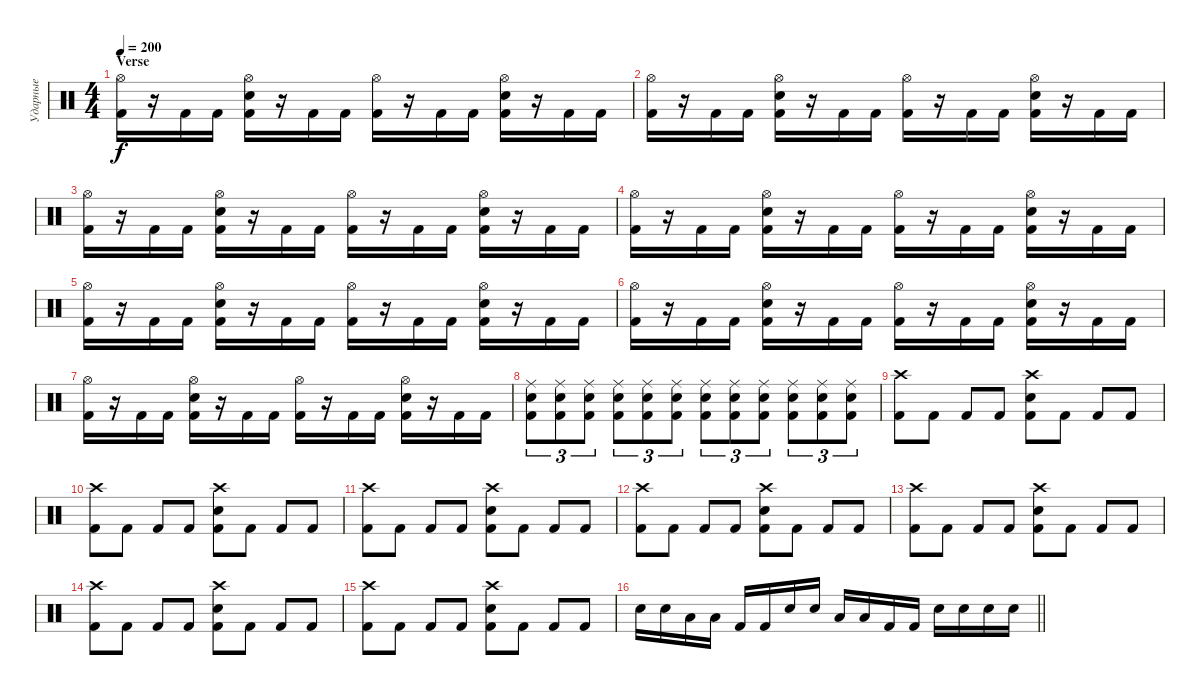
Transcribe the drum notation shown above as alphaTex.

\track ("Ударные" "Ударные") {instrument percussion}
\staff {score}
\articulation defaults
\ts (4 4)
\section ("" "Verse")
\tempo 200
\clef neutral
\ks c
("Hi-Hat (open)" "Kick (hit) 2").16{dy f} r.16 "Kick (hit) 2".16 "Kick (hit) 2".16 ("Hi-Hat (open)" "Electric Snare (hit)" "Kick (hit) 2").16 r.16 "Kick (hit) 2".16 "Kick (hit) 2".16 ("Hi-Hat (open)" "Kick (hit) 2").16 r.16 "Kick (hit) 2".16 "Kick (hit) 2".16 ("Hi-Hat (open)" "Electric Snare (hit)" "Kick (hit) 2").16 r.16 "Kick (hit) 2".16 "Kick (hit) 2".16 |
("Hi-Hat (open)" "Kick (hit) 2").16 r.16 "Kick (hit) 2".16 "Kick (hit) 2".16 ("Hi-Hat (open)" "Electric Snare (hit)" "Kick (hit) 2").16 r.16 "Kick (hit) 2".16 "Kick (hit) 2".16 ("Hi-Hat (open)" "Kick (hit) 2").16 r.16 "Kick (hit) 2".16 "Kick (hit) 2".16 ("Hi-Hat (open)" "Electric Snare (hit)" "Kick (hit) 2").16 r.16 "Kick (hit) 2".16 "Kick (hit) 2".16 |
("Hi-Hat (open)" "Kick (hit) 2").16 r.16 "Kick (hit) 2".16 "Kick (hit) 2".16 ("Hi-Hat (open)" "Electric Snare (hit)" "Kick (hit) 2").16 r.16 "Kick (hit) 2".16 "Kick (hit) 2".16 ("Hi-Hat (open)" "Kick (hit) 2").16 r.16 "Kick (hit) 2".16 "Kick (hit) 2".16 ("Hi-Hat (open)" "Electric Snare (hit)" "Kick (hit) 2").16 r.16 "Kick (hit) 2".16 "Kick (hit) 2".16 |
("Hi-Hat (open)" "Kick (hit) 2").16 r.16 "Kick (hit) 2".16 "Kick (hit) 2".16 ("Hi-Hat (open)" "Electric Snare (hit)" "Kick (hit) 2").16 r.16 "Kick (hit) 2".16 "Kick (hit) 2".16 ("Hi-Hat (open)" "Kick (hit) 2").16 r.16 "Kick (hit) 2".16 "Kick (hit) 2".16 ("Hi-Hat (open)" "Electric Snare (hit)" "Kick (hit) 2").16 r.16 "Kick (hit) 2".16 "Kick (hit) 2".16 |
("Hi-Hat (open)" "Kick (hit) 2").16 r.16 "Kick (hit) 2".16 "Kick (hit) 2".16 ("Hi-Hat (open)" "Electric Snare (hit)" "Kick (hit) 2").16 r.16 "Kick (hit) 2".16 "Kick (hit) 2".16 ("Hi-Hat (open)" "Kick (hit) 2").16 r.16 "Kick (hit) 2".16 "Kick (hit) 2".16 ("Hi-Hat (open)" "Electric Snare (hit)" "Kick (hit) 2").16 r.16 "Kick (hit) 2".16 "Kick (hit) 2".16 |
("Hi-Hat (open)" "Kick (hit) 2").16 r.16 "Kick (hit) 2".16 "Kick (hit) 2".16 ("Hi-Hat (open)" "Electric Snare (hit)" "Kick (hit) 2").16 r.16 "Kick (hit) 2".16 "Kick (hit) 2".16 ("Hi-Hat (open)" "Kick (hit) 2").16 r.16 "Kick (hit) 2".16 "Kick (hit) 2".16 ("Hi-Hat (open)" "Electric Snare (hit)" "Kick (hit) 2").16 r.16 "Kick (hit) 2".16 "Kick (hit) 2".16 |
("Hi-Hat (open)" "Kick (hit) 2").16 r.16 "Kick (hit) 2".16 "Kick (hit) 2".16 ("Hi-Hat (open)" "Electric Snare (hit)" "Kick (hit) 2").16 r.16 "Kick (hit) 2".16 "Kick (hit) 2".16 ("Hi-Hat (open)" "Kick (hit) 2").16 r.16 "Kick (hit) 2".16 "Kick (hit) 2".16 ("Hi-Hat (open)" "Electric Snare (hit)" "Kick (hit) 2").16 r.16 "Kick (hit) 2".16 "Kick (hit) 2".16 |
("Ride (middle)" "Electric Snare (hit)" "Kick (hit) 2").8{tu (3 2)} ("Ride (middle)" "Electric Snare (hit)" "Kick (hit) 2").8{tu (3 2)} ("Ride (middle)" "Electric Snare (hit)" "Kick (hit) 2").8{tu (3 2)} ("Ride (middle)" "Electric Snare (hit)" "Kick (hit) 2").8{tu (3 2)} ("Ride (middle)" "Electric Snare (hit)" "Kick (hit) 2").8{tu (3 2)} ("Ride (middle)" "Electric Snare (hit)" "Kick (hit) 2").8{tu (3 2)} ("Ride (middle)" "Electric Snare (hit)" "Kick (hit) 2").8{tu (3 2)} ("Ride (middle)" "Electric Snare (hit)" "Kick (hit) 2").8{tu (3 2)} ("Ride (middle)" "Electric Snare (hit)" "Kick (hit) 2").8{tu (3 2)} ("Ride (middle)" "Electric Snare (hit)" "Kick (hit) 2").8{tu (3 2)} ("Ride (middle)" "Electric Snare (hit)" "Kick (hit) 2").8{tu (3 2)} ("Ride (middle)" "Electric Snare (hit)" "Kick (hit) 2").8{tu (3 2)} |
("Crash high (hit)" "Kick (hit) 2").8 "Kick (hit) 2".8 "Kick (hit) 2".8 "Kick (hit) 2".8 ("Crash high (hit)" "Electric Snare (hit)" "Kick (hit) 2").8 "Kick (hit) 2".8 "Kick (hit) 2".8 "Kick (hit) 2".8 |
("Crash high (hit)" "Kick (hit) 2").8 "Kick (hit) 2".8 "Kick (hit) 2".8 "Kick (hit) 2".8 ("Crash high (hit)" "Electric Snare (hit)" "Kick (hit) 2").8 "Kick (hit) 2".8 "Kick (hit) 2".8 "Kick (hit) 2".8 |
("Crash high (hit)" "Kick (hit) 2").8 "Kick (hit) 2".8 "Kick (hit) 2".8 "Kick (hit) 2".8 ("Crash high (hit)" "Electric Snare (hit)" "Kick (hit) 2").8 "Kick (hit) 2".8 "Kick (hit) 2".8 "Kick (hit) 2".8 |
("Crash high (hit)" "Kick (hit) 2").8 "Kick (hit) 2".8 "Kick (hit) 2".8 "Kick (hit) 2".8 ("Crash high (hit)" "Electric Snare (hit)" "Kick (hit) 2").8 "Kick (hit) 2".8 "Kick (hit) 2".8 "Kick (hit) 2".8 |
("Crash high (hit)" "Kick (hit) 2").8 "Kick (hit) 2".8 "Kick (hit) 2".8 "Kick (hit) 2".8 ("Crash high (hit)" "Electric Snare (hit)" "Kick (hit) 2").8 "Kick (hit) 2".8 "Kick (hit) 2".8 "Kick (hit) 2".8 |
("Crash high (hit)" "Kick (hit) 2").8 "Kick (hit) 2".8 "Kick (hit) 2".8 "Kick (hit) 2".8 ("Crash high (hit)" "Electric Snare (hit)" "Kick (hit) 2").8 "Kick (hit) 2".8 "Kick (hit) 2".8 "Kick (hit) 2".8 |
("Crash high (hit)" "Kick (hit) 2").8 "Kick (hit) 2".8 "Kick (hit) 2".8 "Kick (hit) 2".8 ("Crash high (hit)" "Electric Snare (hit)" "Kick (hit) 2").8 "Kick (hit) 2".8 "Kick (hit) 2".8 "Kick (hit) 2".8 |
\barLineRight lightlight "Electric Snare (hit)".16 "Electric Snare (hit)".16 "Low Tom (hit)".16 "Low Tom (hit)".16 "Kick (hit) 2".16 "Kick (hit) 2".16 "Electric Snare (hit)".16 "Electric Snare (hit)".16 "Low Tom (hit)".16 "Low Tom (hit)".16 "Kick (hit) 2".16 "Kick (hit) 2".16 "Electric Snare (hit)".16 "Electric Snare (hit)".16 "Electric Snare (hit)".16 "Electric Snare (hit)".16
